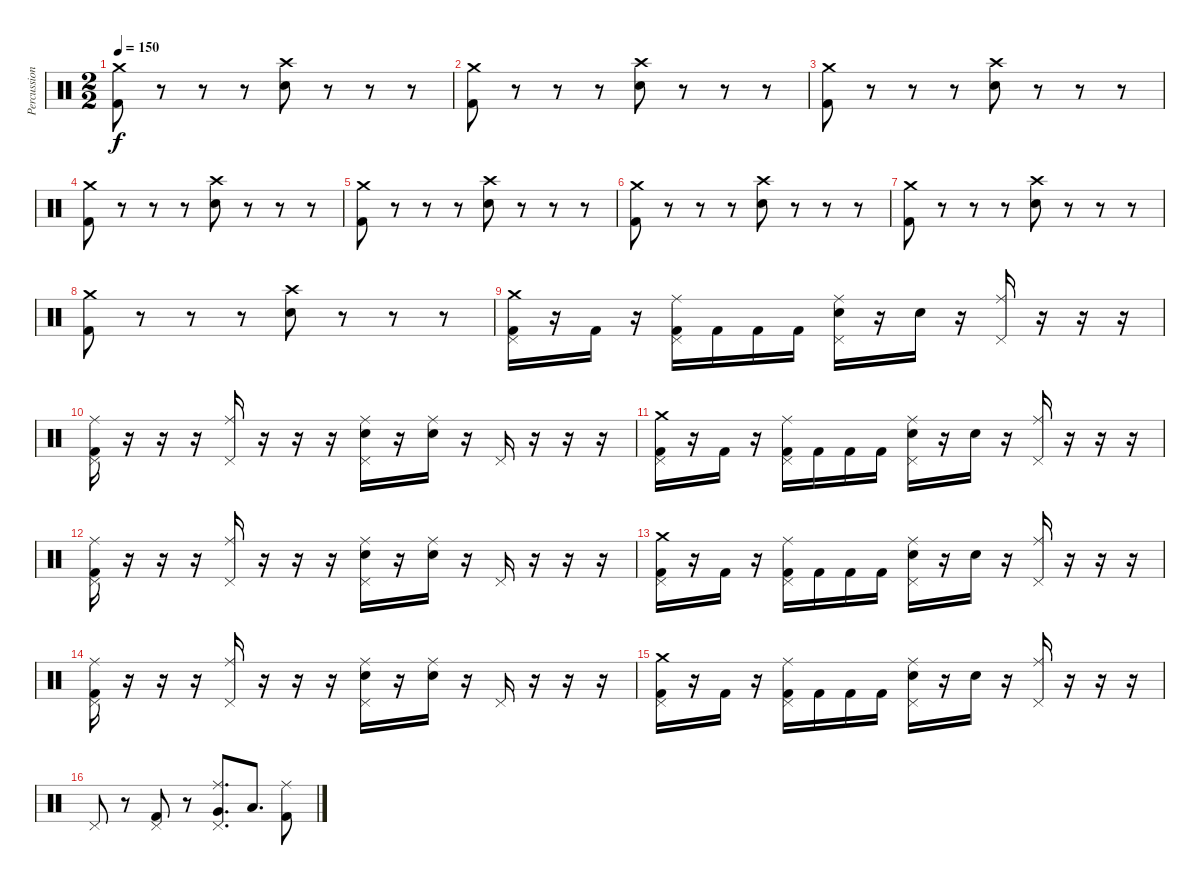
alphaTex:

\track ("Percussion" "Percussion") {instrument percussion}
\staff {score}
\articulation defaults
\ts (2 2)
\tempo 150
\clef neutral
\ks c
("Crash medium (hit)" "Kick (hit) 2").8{dy f} r.8 r.8 r.8 ("Crash high (hit)" "Snare (hit) 2").8 r.8 r.8 r.8 |
("Crash medium (hit)" "Kick (hit) 2").8 r.8 r.8 r.8 ("Crash high (hit)" "Snare (hit) 2").8 r.8 r.8 r.8 |
("Crash medium (hit)" "Kick (hit) 2").8 r.8 r.8 r.8 ("Crash high (hit)" "Snare (hit) 2").8 r.8 r.8 r.8 |
("Crash medium (hit)" "Kick (hit) 2").8 r.8 r.8 r.8 ("Crash high (hit)" "Snare (hit) 2").8 r.8 r.8 r.8 |
("Crash medium (hit)" "Kick (hit) 2").8 r.8 r.8 r.8 ("Crash high (hit)" "Snare (hit) 2").8 r.8 r.8 r.8 |
("Crash medium (hit)" "Kick (hit) 2").8 r.8 r.8 r.8 ("Crash high (hit)" "Snare (hit) 2").8 r.8 r.8 r.8 |
("Crash medium (hit)" "Kick (hit) 2").8 r.8 r.8 r.8 ("Crash high (hit)" "Snare (hit) 2").8 r.8 r.8 r.8 |
("Crash medium (hit)" "Kick (hit) 2").8 r.8 r.8 r.8 ("Crash high (hit)" "Snare (hit) 2").8 r.8 r.8 r.8 |
("Pedal Hi-Hat (hit)" "Crash medium (hit)" "Kick (hit) 2").16 r.16 "Kick (hit) 2".16 r.16 ("Pedal Hi-Hat (hit)" "Ride (middle)" "Kick (hit) 2").16 "Kick (hit) 2".16 "Kick (hit) 2".16 "Kick (hit) 2".16 ("Pedal Hi-Hat (hit)" "Ride (middle)" "Snare (hit) 2").16 r.16 "Snare (hit) 2".16 r.16 ("Pedal Hi-Hat (hit)" "Ride (middle)").16 r.16 r.16 r.16 |
("Pedal Hi-Hat (hit)" "Ride (middle)" "Kick (hit) 2").16 r.16 r.16 r.16 ("Pedal Hi-Hat (hit)" "Ride (middle)").16 r.16 r.16 r.16 ("Pedal Hi-Hat (hit)" "Ride (middle)" "Snare (hit) 2").16 r.16 ("Ride (middle)" "Snare (hit) 2").16 r.16 "Pedal Hi-Hat (hit)".16 r.16 r.16 r.16 |
("Pedal Hi-Hat (hit)" "Crash medium (hit)" "Kick (hit) 2").16 r.16 "Kick (hit) 2".16 r.16 ("Pedal Hi-Hat (hit)" "Ride (middle)" "Kick (hit) 2").16 "Kick (hit) 2".16 "Kick (hit) 2".16 "Kick (hit) 2".16 ("Pedal Hi-Hat (hit)" "Ride (middle)" "Snare (hit) 2").16 r.16 "Snare (hit) 2".16 r.16 ("Pedal Hi-Hat (hit)" "Ride (middle)").16 r.16 r.16 r.16 |
("Pedal Hi-Hat (hit)" "Ride (middle)" "Kick (hit) 2").16 r.16 r.16 r.16 ("Pedal Hi-Hat (hit)" "Ride (middle)").16 r.16 r.16 r.16 ("Pedal Hi-Hat (hit)" "Ride (middle)" "Snare (hit) 2").16 r.16 ("Ride (middle)" "Snare (hit) 2").16 r.16 "Pedal Hi-Hat (hit)".16 r.16 r.16 r.16 |
("Pedal Hi-Hat (hit)" "Crash medium (hit)" "Kick (hit) 2").16 r.16 "Kick (hit) 2".16 r.16 ("Pedal Hi-Hat (hit)" "Ride (middle)" "Kick (hit) 2").16 "Kick (hit) 2".16 "Kick (hit) 2".16 "Kick (hit) 2".16 ("Pedal Hi-Hat (hit)" "Ride (middle)" "Snare (hit) 2").16 r.16 "Snare (hit) 2".16 r.16 ("Pedal Hi-Hat (hit)" "Ride (middle)").16 r.16 r.16 r.16 |
("Pedal Hi-Hat (hit)" "Ride (middle)" "Kick (hit) 2").16 r.16 r.16 r.16 ("Pedal Hi-Hat (hit)" "Ride (middle)").16 r.16 r.16 r.16 ("Pedal Hi-Hat (hit)" "Ride (middle)" "Snare (hit) 2").16 r.16 ("Ride (middle)" "Snare (hit) 2").16 r.16 "Pedal Hi-Hat (hit)".16 r.16 r.16 r.16 |
("Pedal Hi-Hat (hit)" "Crash medium (hit)" "Kick (hit) 2").16 r.16 "Kick (hit) 2".16 r.16 ("Pedal Hi-Hat (hit)" "Ride (middle)" "Kick (hit) 2").16 "Kick (hit) 2".16 "Kick (hit) 2".16 "Kick (hit) 2".16 ("Pedal Hi-Hat (hit)" "Ride (middle)" "Snare (hit) 2").16 r.16 "Snare (hit) 2".16 r.16 ("Pedal Hi-Hat (hit)" "Ride (middle)").16 r.16 r.16 r.16 |
"Pedal Hi-Hat (hit)".8 r.8 ("Pedal Hi-Hat (hit)" "Kick (hit) 2").8 r.8 ("Pedal Hi-Hat (hit)" "Ride (middle)" "Very Low Tom (hit)").8{d} "Low Floor Tom (hit)".8{d} ("Ride (middle)" "Kick (hit) 2").8
